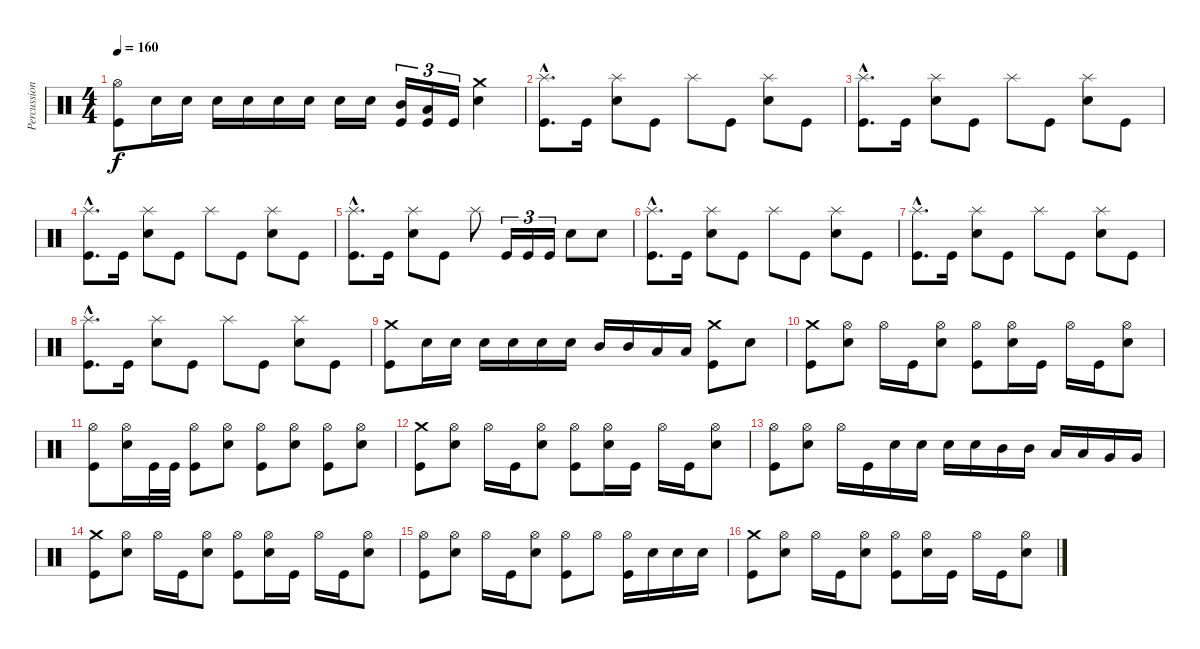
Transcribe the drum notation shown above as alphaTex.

\track ("Percussions" "Percussion") {instrument percussion}
\staff {score}
\articulation defaults
\ts (4 4)
\tempo 160
\clef neutral
\ks c
("Kick (hit)" "Hi-Hat (open)").8{dy f} "Electric Snare (hit)".16 "Electric Snare (hit)".16 "Electric Snare (hit)".16 "Electric Snare (hit)".16 "Electric Snare (hit)".16 "Electric Snare (hit)".16 "Electric Snare (hit)".16 "Electric Snare (hit)".16 ("Kick (hit)" "Mid Tom (hit)").16{tu (3 2)} ("Kick (hit)" "Low Tom (hit)").16{tu (3 2)} "Kick (hit)".16{tu (3 2)} ("Electric Snare (hit)" "Crash medium (hit)").4 |
("Kick (hit)"{hac} "Splash (hit)"{hac}).8{d} "Kick (hit)".16 ("Electric Snare (hit)" "Splash (hit)").8 "Kick (hit)".8 "Splash (hit)".8 "Kick (hit)".8 ("Electric Snare (hit)" "Splash (hit)").8 "Kick (hit)".8 |
("Kick (hit)"{hac} "Splash (hit)"{hac}).8{d} "Kick (hit)".16 ("Electric Snare (hit)" "Splash (hit)").8 "Kick (hit)".8 "Splash (hit)".8 "Kick (hit)".8 ("Electric Snare (hit)" "Splash (hit)").8 "Kick (hit)".8 |
("Kick (hit)"{hac} "Splash (hit)"{hac}).8{d} "Kick (hit)".16 ("Electric Snare (hit)" "Splash (hit)").8 "Kick (hit)".8 "Splash (hit)".8 "Kick (hit)".8 ("Electric Snare (hit)" "Splash (hit)").8 "Kick (hit)".8 |
("Kick (hit)"{hac} "Splash (hit)"{hac}).8{d} "Kick (hit)".16 ("Electric Snare (hit)" "Splash (hit)").8 "Kick (hit)".8 "Splash (hit)".8 "Kick (hit)".16{tu (3 2)} "Kick (hit)".16{tu (3 2)} "Kick (hit)".16{tu (3 2)} "Electric Snare (hit)".8 "Electric Snare (hit)".8 |
("Kick (hit)"{hac} "Splash (hit)"{hac}).8{d} "Kick (hit)".16 ("Electric Snare (hit)" "Splash (hit)").8 "Kick (hit)".8 "Splash (hit)".8 "Kick (hit)".8 ("Electric Snare (hit)" "Splash (hit)").8 "Kick (hit)".8 |
("Kick (hit)"{hac} "Splash (hit)"{hac}).8{d} "Kick (hit)".16 ("Electric Snare (hit)" "Splash (hit)").8 "Kick (hit)".8 "Splash (hit)".8 "Kick (hit)".8 ("Electric Snare (hit)" "Splash (hit)").8 "Kick (hit)".8 |
("Kick (hit)"{hac} "Splash (hit)"{hac}).8{d} "Kick (hit)".16 ("Electric Snare (hit)" "Splash (hit)").8 "Kick (hit)".8 "Splash (hit)".8 "Kick (hit)".8 ("Electric Snare (hit)" "Splash (hit)").8 "Kick (hit)".8 |
("Kick (hit)" "Crash medium (hit)").8 "Electric Snare (hit)".16 "Electric Snare (hit)".16 "Electric Snare (hit)".16 "Electric Snare (hit)".16 "Electric Snare (hit)".16 "Electric Snare (hit)".16 "Mid Tom (hit)".16 "Mid Tom (hit)".16 "Low Tom (hit)".16 "Low Tom (hit)".16 ("Kick (hit)" "Crash medium (hit)").8 "Electric Snare (hit)".8 |
("Kick (hit)" "Crash medium (hit)").8 ("Electric Snare (hit)" "Hi-Hat (open)").8 "Hi-Hat (open)".16 "Kick (hit)".16 ("Electric Snare (hit)" "Hi-Hat (open)").8 ("Kick (hit)" "Hi-Hat (open)").8 ("Electric Snare (hit)" "Hi-Hat (open)").16 "Kick (hit)".16 "Hi-Hat (open)".16 "Kick (hit)".16 ("Electric Snare (hit)" "Hi-Hat (open)").8 |
("Kick (hit)" "Hi-Hat (open)").8 ("Electric Snare (hit)" "Hi-Hat (open)").16 "Kick (hit)".32 "Kick (hit)".32 ("Kick (hit)" "Hi-Hat (open)").8 ("Electric Snare (hit)" "Hi-Hat (open)").8 ("Kick (hit)" "Hi-Hat (open)").8 ("Electric Snare (hit)" "Hi-Hat (open)").8 ("Kick (hit)" "Hi-Hat (open)").8 ("Electric Snare (hit)" "Hi-Hat (open)").8 |
("Kick (hit)" "Crash medium (hit)").8 ("Electric Snare (hit)" "Hi-Hat (open)").8 "Hi-Hat (open)".16 "Kick (hit)".16 ("Electric Snare (hit)" "Hi-Hat (open)").8 ("Kick (hit)" "Hi-Hat (open)").8 ("Electric Snare (hit)" "Hi-Hat (open)").16 "Kick (hit)".16 "Hi-Hat (open)".16 "Kick (hit)".16 ("Electric Snare (hit)" "Hi-Hat (open)").8 |
("Kick (hit)" "Hi-Hat (open)").8 ("Electric Snare (hit)" "Hi-Hat (open)").8 "Hi-Hat (open)".16 "Kick (hit)".16 "Electric Snare (hit)".16 "Electric Snare (hit)".16 "Electric Snare (hit)".16 "Electric Snare (hit)".16 "Mid Tom (hit)".16 "Mid Tom (hit)".16 "Low Tom (hit)".16 "Low Tom (hit)".16 "Very Low Tom (hit)".16 "Very Low Tom (hit)".16 |
("Kick (hit)" "Crash medium (hit)").8 ("Electric Snare (hit)" "Hi-Hat (open)").8 "Hi-Hat (open)".16 "Kick (hit)".16 ("Electric Snare (hit)" "Hi-Hat (open)").8 ("Kick (hit)" "Hi-Hat (open)").8 ("Electric Snare (hit)" "Hi-Hat (open)").16 "Kick (hit)".16 "Hi-Hat (open)".16 "Kick (hit)".16 ("Electric Snare (hit)" "Hi-Hat (open)").8 |
("Kick (hit)" "Hi-Hat (open)").8 ("Electric Snare (hit)" "Hi-Hat (open)").8 "Hi-Hat (open)".16 "Kick (hit)".16 ("Electric Snare (hit)" "Hi-Hat (open)").8 ("Kick (hit)" "Hi-Hat (open)").8 "Hi-Hat (open)".8 ("Kick (hit)" "Hi-Hat (open)").16 "Electric Snare (hit)".16 "Electric Snare (hit)".16 "Electric Snare (hit)".16 |
("Kick (hit)" "Crash medium (hit)").8 ("Electric Snare (hit)" "Hi-Hat (open)").8 "Hi-Hat (open)".16 "Kick (hit)".16 ("Electric Snare (hit)" "Hi-Hat (open)").8 ("Kick (hit)" "Hi-Hat (open)").8 ("Electric Snare (hit)" "Hi-Hat (open)").16 "Kick (hit)".16 "Hi-Hat (open)".16 "Kick (hit)".16 ("Electric Snare (hit)" "Hi-Hat (open)").8
